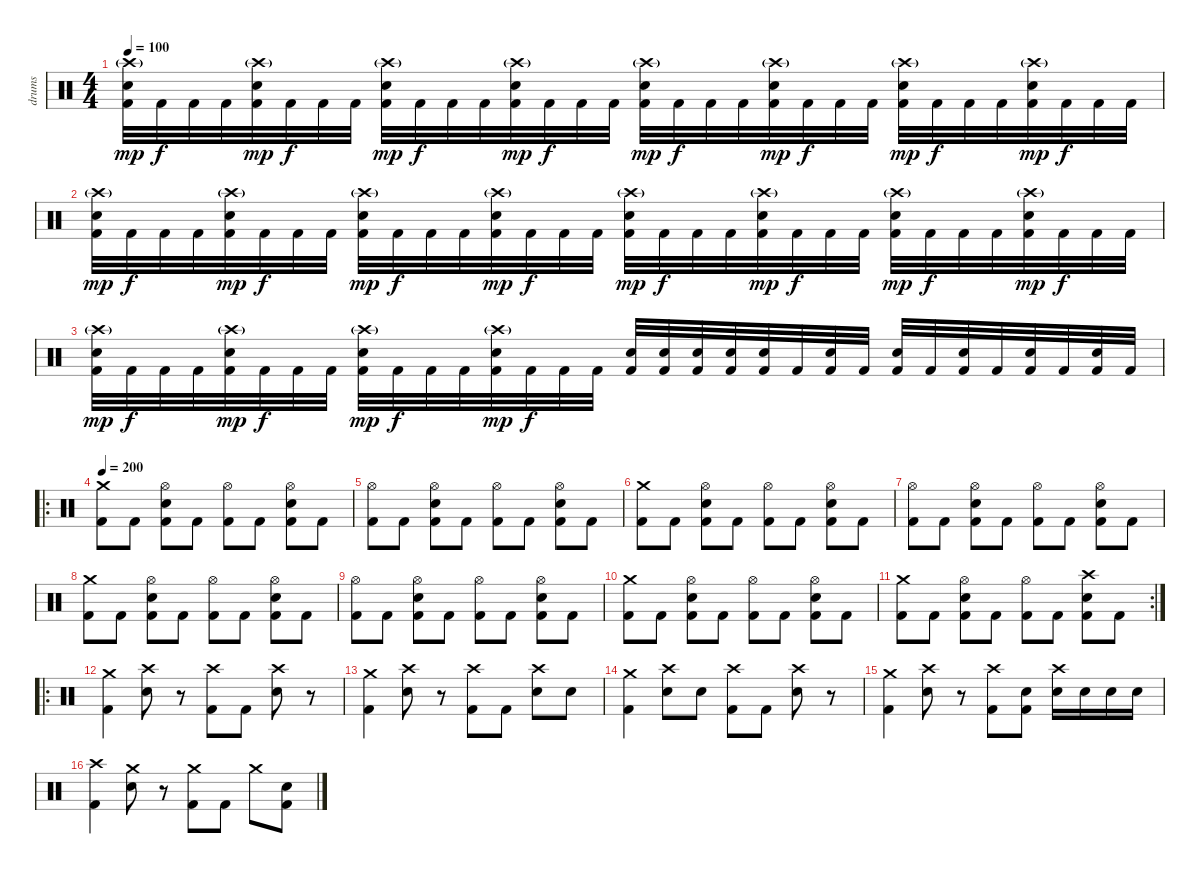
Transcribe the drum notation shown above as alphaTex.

\track ("drums" "drums") {instrument percussion}
\staff {score}
\articulation defaults
\ts (4 4)
\tempo 100
\clef neutral
\ks c
("Crash high (hit)"{g} "Electric Snare (hit)" "Kick (hit) 2").32{dy mp} "Kick (hit) 2".32{dy f} "Kick (hit) 2".32 "Kick (hit) 2".32 ("Crash high (hit)"{g} "Electric Snare (hit)" "Kick (hit) 2").32{dy mp} "Kick (hit) 2".32{dy f} "Kick (hit) 2".32 "Kick (hit) 2".32 ("Crash high (hit)"{g} "Electric Snare (hit)" "Kick (hit) 2").32{dy mp} "Kick (hit) 2".32{dy f} "Kick (hit) 2".32 "Kick (hit) 2".32 ("Crash high (hit)"{g} "Electric Snare (hit)" "Kick (hit) 2").32{dy mp} "Kick (hit) 2".32{dy f} "Kick (hit) 2".32 "Kick (hit) 2".32 ("Crash high (hit)"{g} "Electric Snare (hit)" "Kick (hit) 2").32{dy mp} "Kick (hit) 2".32{dy f} "Kick (hit) 2".32 "Kick (hit) 2".32 ("Crash high (hit)"{g} "Electric Snare (hit)" "Kick (hit) 2").32{dy mp} "Kick (hit) 2".32{dy f} "Kick (hit) 2".32 "Kick (hit) 2".32 ("Crash high (hit)"{g} "Electric Snare (hit)" "Kick (hit) 2").32{dy mp} "Kick (hit) 2".32{dy f} "Kick (hit) 2".32 "Kick (hit) 2".32 ("Crash high (hit)"{g} "Electric Snare (hit)" "Kick (hit) 2").32{dy mp} "Kick (hit) 2".32{dy f} "Kick (hit) 2".32 "Kick (hit) 2".32 |
("Crash high (hit)"{g} "Electric Snare (hit)" "Kick (hit) 2").32{dy mp} "Kick (hit) 2".32{dy f} "Kick (hit) 2".32 "Kick (hit) 2".32 ("Crash high (hit)"{g} "Electric Snare (hit)" "Kick (hit) 2").32{dy mp} "Kick (hit) 2".32{dy f} "Kick (hit) 2".32 "Kick (hit) 2".32 ("Crash high (hit)"{g} "Electric Snare (hit)" "Kick (hit) 2").32{dy mp} "Kick (hit) 2".32{dy f} "Kick (hit) 2".32 "Kick (hit) 2".32 ("Crash high (hit)"{g} "Electric Snare (hit)" "Kick (hit) 2").32{dy mp} "Kick (hit) 2".32{dy f} "Kick (hit) 2".32 "Kick (hit) 2".32 ("Crash high (hit)"{g} "Electric Snare (hit)" "Kick (hit) 2").32{dy mp} "Kick (hit) 2".32{dy f} "Kick (hit) 2".32 "Kick (hit) 2".32 ("Crash high (hit)"{g} "Electric Snare (hit)" "Kick (hit) 2").32{dy mp} "Kick (hit) 2".32{dy f} "Kick (hit) 2".32 "Kick (hit) 2".32 ("Crash high (hit)"{g} "Electric Snare (hit)" "Kick (hit) 2").32{dy mp} "Kick (hit) 2".32{dy f} "Kick (hit) 2".32 "Kick (hit) 2".32 ("Crash high (hit)"{g} "Electric Snare (hit)" "Kick (hit) 2").32{dy mp} "Kick (hit) 2".32{dy f} "Kick (hit) 2".32 "Kick (hit) 2".32 |
("Crash high (hit)"{g} "Electric Snare (hit)" "Kick (hit) 2").32{dy mp} "Kick (hit) 2".32{dy f} "Kick (hit) 2".32 "Kick (hit) 2".32 ("Crash high (hit)"{g} "Electric Snare (hit)" "Kick (hit) 2").32{dy mp} "Kick (hit) 2".32{dy f} "Kick (hit) 2".32 "Kick (hit) 2".32 ("Crash high (hit)"{g} "Electric Snare (hit)" "Kick (hit) 2").32{dy mp} "Kick (hit) 2".32{dy f} "Kick (hit) 2".32 "Kick (hit) 2".32 ("Crash high (hit)"{g} "Electric Snare (hit)" "Kick (hit) 2").32{dy mp} "Kick (hit) 2".32{dy f} "Kick (hit) 2".32 "Kick (hit) 2".32 ("Electric Snare (hit)" "Kick (hit) 2").32 ("Electric Snare (hit)" "Kick (hit) 2").32 ("Electric Snare (hit)" "Kick (hit) 2").32 ("Electric Snare (hit)" "Kick (hit) 2").32 ("Electric Snare (hit)" "Kick (hit) 2").32 "Kick (hit) 2".32 ("Electric Snare (hit)" "Kick (hit) 2").32 "Kick (hit) 2".32 ("Electric Snare (hit)" "Kick (hit) 2").32 "Kick (hit) 2".32 ("Electric Snare (hit)" "Kick (hit) 2").32 "Kick (hit) 2".32 ("Electric Snare (hit)" "Kick (hit) 2").32 "Kick (hit) 2".32 ("Electric Snare (hit)" "Kick (hit) 2").32 "Kick (hit) 2".32 |
\ro
\tempo 200
("Crash medium (hit)" "Kick (hit) 2").8 "Kick (hit) 2".8 ("Hi-Hat (open)" "Electric Snare (hit)" "Kick (hit) 2").8 "Kick (hit) 2".8 ("Hi-Hat (open)" "Kick (hit) 2").8 "Kick (hit) 2".8 ("Hi-Hat (open)" "Electric Snare (hit)" "Kick (hit) 2").8 "Kick (hit) 2".8 |
("Hi-Hat (open)" "Kick (hit) 2").8 "Kick (hit) 2".8 ("Hi-Hat (open)" "Electric Snare (hit)" "Kick (hit) 2").8 "Kick (hit) 2".8 ("Hi-Hat (open)" "Kick (hit) 2").8 "Kick (hit) 2".8 ("Hi-Hat (open)" "Electric Snare (hit)" "Kick (hit) 2").8 "Kick (hit) 2".8 |
("Crash medium (hit)" "Kick (hit) 2").8 "Kick (hit) 2".8 ("Hi-Hat (open)" "Electric Snare (hit)" "Kick (hit) 2").8 "Kick (hit) 2".8 ("Hi-Hat (open)" "Kick (hit) 2").8 "Kick (hit) 2".8 ("Hi-Hat (open)" "Electric Snare (hit)" "Kick (hit) 2").8 "Kick (hit) 2".8 |
("Hi-Hat (open)" "Kick (hit) 2").8 "Kick (hit) 2".8 ("Hi-Hat (open)" "Electric Snare (hit)" "Kick (hit) 2").8 "Kick (hit) 2".8 ("Hi-Hat (open)" "Kick (hit) 2").8 "Kick (hit) 2".8 ("Hi-Hat (open)" "Electric Snare (hit)" "Kick (hit) 2").8 "Kick (hit) 2".8 |
("Crash medium (hit)" "Kick (hit) 2").8 "Kick (hit) 2".8 ("Hi-Hat (open)" "Electric Snare (hit)" "Kick (hit) 2").8 "Kick (hit) 2".8 ("Hi-Hat (open)" "Kick (hit) 2").8 "Kick (hit) 2".8 ("Hi-Hat (open)" "Electric Snare (hit)" "Kick (hit) 2").8 "Kick (hit) 2".8 |
("Hi-Hat (open)" "Kick (hit) 2").8 "Kick (hit) 2".8 ("Hi-Hat (open)" "Electric Snare (hit)" "Kick (hit) 2").8 "Kick (hit) 2".8 ("Hi-Hat (open)" "Kick (hit) 2").8 "Kick (hit) 2".8 ("Hi-Hat (open)" "Electric Snare (hit)" "Kick (hit) 2").8 "Kick (hit) 2".8 |
("Crash medium (hit)" "Kick (hit) 2").8 "Kick (hit) 2".8 ("Hi-Hat (open)" "Electric Snare (hit)" "Kick (hit) 2").8 "Kick (hit) 2".8 ("Hi-Hat (open)" "Kick (hit) 2").8 "Kick (hit) 2".8 ("Hi-Hat (open)" "Electric Snare (hit)" "Kick (hit) 2").8 "Kick (hit) 2".8 |
\rc 2
("Crash medium (hit)" "Kick (hit) 2").8 "Kick (hit) 2".8 ("Hi-Hat (open)" "Electric Snare (hit)" "Kick (hit) 2").8 "Kick (hit) 2".8 ("Hi-Hat (open)" "Kick (hit) 2").8 "Kick (hit) 2".8 ("Crash high (hit)" "Electric Snare (hit)" "Kick (hit) 2").8 "Kick (hit) 2".8 |
\ro
("Crash medium (hit)" "Kick (hit) 2").4 ("Crash high (hit)" "Electric Snare (hit)").8 r.8 ("Crash high (hit)" "Kick (hit) 2").8 "Kick (hit) 2".8 ("Crash high (hit)" "Electric Snare (hit)").8 r.8 |
("Crash medium (hit)" "Kick (hit) 2").4 ("Crash high (hit)" "Electric Snare (hit)").8 r.8 ("Crash high (hit)" "Kick (hit) 2").8 "Kick (hit) 2".8 ("Crash high (hit)" "Electric Snare (hit)").8 "Electric Snare (hit)".8 |
("Crash medium (hit)" "Kick (hit) 2").4 ("Crash high (hit)" "Electric Snare (hit)").8 "Electric Snare (hit)".8 ("Crash high (hit)" "Kick (hit) 2").8 "Kick (hit) 2".8 ("Crash high (hit)" "Electric Snare (hit)").8 r.8 |
("Crash medium (hit)" "Kick (hit) 2").4 ("Crash high (hit)" "Electric Snare (hit)").8 r.8 ("Crash high (hit)" "Kick (hit) 2").8 ("Electric Snare (hit)" "Kick (hit) 2").8 ("Crash high (hit)" "Electric Snare (hit)").16 "Electric Snare (hit)".16 "Electric Snare (hit)".16 "Electric Snare (hit)".16 |
("Crash high (hit)" "Kick (hit) 2").4 ("Crash medium (hit)" "Electric Snare (hit)").8 r.8 ("Crash medium (hit)" "Kick (hit) 2").8 "Kick (hit) 2".8 "Crash medium (hit)".8 ("Electric Snare (hit)" "Kick (hit) 2").8
